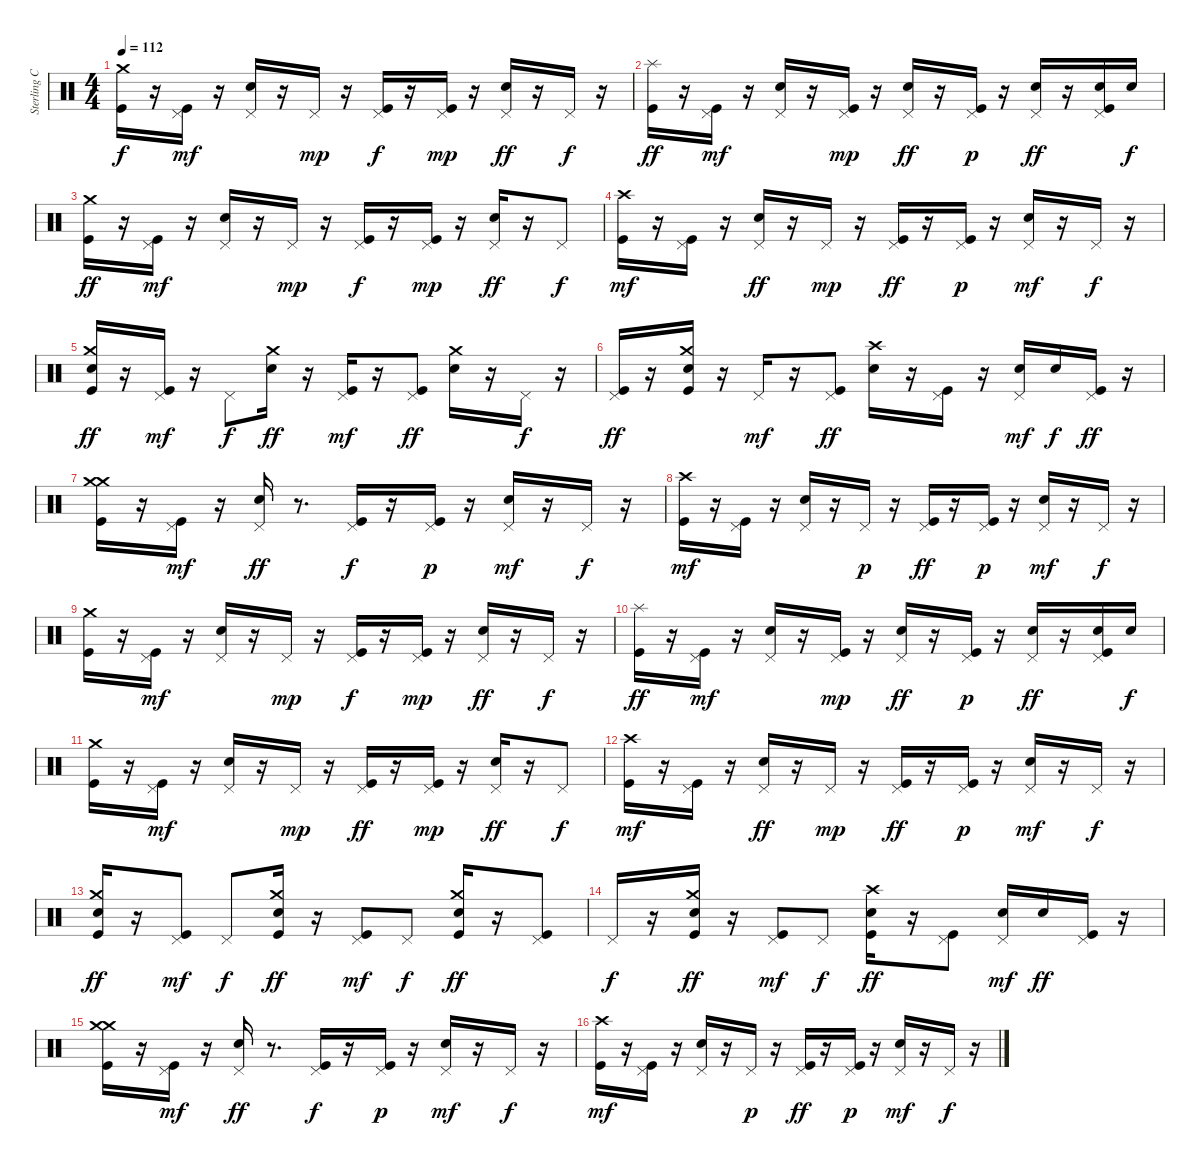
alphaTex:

\track ("Sterling Campbell" "Sterling C") {instrument percussion}
\staff {score}
\articulation defaults
\ts (4 4)
\tempo 112
\clef neutral
\ks c
("Kick (hit)" "Crash medium (hit)").16{dy f} r.16 ("Kick (hit)" "Pedal Hi-Hat (hit)").16{dy mf} r.16 ("Electric Snare (hit)" "Pedal Hi-Hat (hit)").16 r.16 "Pedal Hi-Hat (hit)".16{dy mp} r.16 ("Kick (hit)" "Pedal Hi-Hat (hit)").16{dy f} r.16 ("Kick (hit)" "Pedal Hi-Hat (hit)").16{dy mp} r.16 ("Electric Snare (hit)" "Pedal Hi-Hat (hit)").16{dy ff} r.16 "Pedal Hi-Hat (hit)".16{dy f} r.16 |
("Kick (hit)" "Splash (hit)").16{dy ff} r.16 ("Kick (hit)" "Pedal Hi-Hat (hit)").16{dy mf} r.16 ("Electric Snare (hit)" "Pedal Hi-Hat (hit)").16 r.16 ("Kick (hit)" "Pedal Hi-Hat (hit)").16{dy mp} r.16 ("Electric Snare (hit)" "Pedal Hi-Hat (hit)").16{dy ff} r.16 ("Kick (hit)" "Pedal Hi-Hat (hit)").16{dy p} r.16 ("Electric Snare (hit)" "Pedal Hi-Hat (hit)").16{dy ff} r.16 ("Electric Snare (hit)" "Kick (hit)" "Pedal Hi-Hat (hit)").16 "Electric Snare (hit)".16{dy f} |
("Kick (hit)" "Crash medium (hit)").16{dy ff} r.16 ("Kick (hit)" "Pedal Hi-Hat (hit)").16{dy mf} r.16 ("Electric Snare (hit)" "Pedal Hi-Hat (hit)").16 r.16 "Pedal Hi-Hat (hit)".16{dy mp} r.16 ("Kick (hit)" "Pedal Hi-Hat (hit)").16{dy f} r.16 ("Kick (hit)" "Pedal Hi-Hat (hit)").16{dy mp} r.16 ("Electric Snare (hit)" "Pedal Hi-Hat (hit)").16{dy ff} r.16 "Pedal Hi-Hat (hit)".8{dy f} |
("Kick (hit)" "Crash high (hit)").16{dy mf} r.16 ("Kick (hit)" "Pedal Hi-Hat (hit)").16 r.16 ("Electric Snare (hit)" "Pedal Hi-Hat (hit)").16{dy ff} r.16 "Pedal Hi-Hat (hit)".16{dy mp} r.16 ("Kick (hit)" "Pedal Hi-Hat (hit)").16{dy ff} r.16 ("Kick (hit)" "Pedal Hi-Hat (hit)").16{dy p} r.16 ("Electric Snare (hit)" "Pedal Hi-Hat (hit)").16{dy mf} r.16 "Pedal Hi-Hat (hit)".16{dy f} r.16 |
("Electric Snare (hit)" "Kick (hit)" "Crash medium (hit)").16{dy ff} r.16 ("Kick (hit)" "Pedal Hi-Hat (hit)").16{dy mf} r.16 "Pedal Hi-Hat (hit)".8{dy f} ("Electric Snare (hit)" "Crash medium (hit)").16{dy ff} r.16 ("Kick (hit)" "Pedal Hi-Hat (hit)").16{dy mf} r.16 ("Kick (hit)" "Pedal Hi-Hat (hit)").8{dy ff} ("Electric Snare (hit)" "Crash medium (hit)").16 r.16 "Pedal Hi-Hat (hit)".16{dy f} r.16 |
("Kick (hit)" "Pedal Hi-Hat (hit)").16{dy ff} r.16 ("Electric Snare (hit)" "Kick (hit)" "Crash medium (hit)").16 r.16 "Pedal Hi-Hat (hit)".16{dy mf} r.16 ("Kick (hit)" "Pedal Hi-Hat (hit)").8{dy ff} ("Electric Snare (hit)" "Crash high (hit)").16 r.16 ("Kick (hit)" "Pedal Hi-Hat (hit)").16 r.16 ("Electric Snare (hit)" "Pedal Hi-Hat (hit)").16{dy mf} "Electric Snare (hit)".16{dy f} ("Kick (hit)" "Pedal Hi-Hat (hit)").16{dy ff} r.16 |
("Crash medium (hit)" "Kick (hit)" "Crash medium (hit)").16 r.16 ("Kick (hit)" "Pedal Hi-Hat (hit)").16{dy mf} r.16 ("Electric Snare (hit)" "Pedal Hi-Hat (hit)").16{dy ff} r.8{d} ("Kick (hit)" "Pedal Hi-Hat (hit)").16{dy f} r.16 ("Kick (hit)" "Pedal Hi-Hat (hit)").16{dy p} r.16 ("Electric Snare (hit)" "Pedal Hi-Hat (hit)").16{dy mf} r.16 "Pedal Hi-Hat (hit)".16{dy f} r.16 |
("Kick (hit)" "Crash high (hit)").16{dy mf} r.16 ("Kick (hit)" "Pedal Hi-Hat (hit)").16 r.16 ("Electric Snare (hit)" "Pedal Hi-Hat (hit)").16 r.16 "Pedal Hi-Hat (hit)".16{dy p} r.16 ("Kick (hit)" "Pedal Hi-Hat (hit)").16{dy ff} r.16 ("Kick (hit)" "Pedal Hi-Hat (hit)").16{dy p} r.16 ("Electric Snare (hit)" "Pedal Hi-Hat (hit)").16{dy mf} r.16 "Pedal Hi-Hat (hit)".16{dy f} r.16 |
("Kick (hit)" "Crash medium (hit)").16 r.16 ("Kick (hit)" "Pedal Hi-Hat (hit)").16{dy mf} r.16 ("Electric Snare (hit)" "Pedal Hi-Hat (hit)").16 r.16 "Pedal Hi-Hat (hit)".16{dy mp} r.16 ("Kick (hit)" "Pedal Hi-Hat (hit)").16{dy f} r.16 ("Kick (hit)" "Pedal Hi-Hat (hit)").16{dy mp} r.16 ("Electric Snare (hit)" "Pedal Hi-Hat (hit)").16{dy ff} r.16 "Pedal Hi-Hat (hit)".16{dy f} r.16 |
("Kick (hit)" "Splash (hit)").16{dy ff} r.16 ("Kick (hit)" "Pedal Hi-Hat (hit)").16{dy mf} r.16 ("Electric Snare (hit)" "Pedal Hi-Hat (hit)").16 r.16 ("Kick (hit)" "Pedal Hi-Hat (hit)").16{dy mp} r.16 ("Electric Snare (hit)" "Pedal Hi-Hat (hit)").16{dy ff} r.16 ("Kick (hit)" "Pedal Hi-Hat (hit)").16{dy p} r.16 ("Electric Snare (hit)" "Pedal Hi-Hat (hit)").16{dy ff} r.16 ("Electric Snare (hit)" "Kick (hit)" "Pedal Hi-Hat (hit)").16 "Electric Snare (hit)".16{dy f} |
("Kick (hit)" "Crash medium (hit)").16 r.16 ("Kick (hit)" "Pedal Hi-Hat (hit)").16{dy mf} r.16 ("Electric Snare (hit)" "Pedal Hi-Hat (hit)").16 r.16 "Pedal Hi-Hat (hit)".16{dy mp} r.16 ("Kick (hit)" "Pedal Hi-Hat (hit)").16{dy ff} r.16 ("Kick (hit)" "Pedal Hi-Hat (hit)").16{dy mp} r.16 ("Electric Snare (hit)" "Pedal Hi-Hat (hit)").16{dy ff} r.16 "Pedal Hi-Hat (hit)".8{dy f} |
("Kick (hit)" "Crash high (hit)").16{dy mf} r.16 ("Kick (hit)" "Pedal Hi-Hat (hit)").16 r.16 ("Electric Snare (hit)" "Pedal Hi-Hat (hit)").16{dy ff} r.16 "Pedal Hi-Hat (hit)".16{dy mp} r.16 ("Kick (hit)" "Pedal Hi-Hat (hit)").16{dy ff} r.16 ("Kick (hit)" "Pedal Hi-Hat (hit)").16{dy p} r.16 ("Electric Snare (hit)" "Pedal Hi-Hat (hit)").16{dy mf} r.16 "Pedal Hi-Hat (hit)".16{dy f} r.16 |
("Electric Snare (hit)" "Kick (hit)" "Crash medium (hit)").16{dy ff} r.16 ("Kick (hit)" "Pedal Hi-Hat (hit)").8{dy mf} "Pedal Hi-Hat (hit)".8{dy f} ("Electric Snare (hit)" "Kick (hit)" "Crash medium (hit)").16{dy ff} r.16 ("Kick (hit)" "Pedal Hi-Hat (hit)").8{dy mf} "Pedal Hi-Hat (hit)".8{dy f} ("Electric Snare (hit)" "Kick (hit)" "Crash medium (hit)").16{dy ff} r.16 ("Kick (hit)" "Pedal Hi-Hat (hit)").8 |
"Pedal Hi-Hat (hit)".16{dy f} r.16 ("Electric Snare (hit)" "Kick (hit)" "Crash medium (hit)").16{dy ff} r.16 ("Kick (hit)" "Pedal Hi-Hat (hit)").8{dy mf} "Pedal Hi-Hat (hit)".8{dy f} ("Electric Snare (hit)" "Kick (hit)" "Crash high (hit)").16{dy ff} r.16 ("Kick (hit)" "Pedal Hi-Hat (hit)").8 ("Electric Snare (hit)" "Pedal Hi-Hat (hit)").16{dy mf} "Electric Snare (hit)".16{dy ff} ("Kick (hit)" "Pedal Hi-Hat (hit)").16 r.16 |
("Crash medium (hit)" "Kick (hit)" "Crash medium (hit)").16 r.16 ("Kick (hit)" "Pedal Hi-Hat (hit)").16{dy mf} r.16 ("Electric Snare (hit)" "Pedal Hi-Hat (hit)").16{dy ff} r.8{d} ("Kick (hit)" "Pedal Hi-Hat (hit)").16{dy f} r.16 ("Kick (hit)" "Pedal Hi-Hat (hit)").16{dy p} r.16 ("Electric Snare (hit)" "Pedal Hi-Hat (hit)").16{dy mf} r.16 "Pedal Hi-Hat (hit)".16{dy f} r.16 |
("Kick (hit)" "Crash high (hit)").16{dy mf} r.16 ("Kick (hit)" "Pedal Hi-Hat (hit)").16 r.16 ("Electric Snare (hit)" "Pedal Hi-Hat (hit)").16 r.16 "Pedal Hi-Hat (hit)".16{dy p} r.16 ("Kick (hit)" "Pedal Hi-Hat (hit)").16{dy ff} r.16 ("Kick (hit)" "Pedal Hi-Hat (hit)").16{dy p} r.16 ("Electric Snare (hit)" "Pedal Hi-Hat (hit)").16{dy mf} r.16 "Pedal Hi-Hat (hit)".16{dy f} r.16
